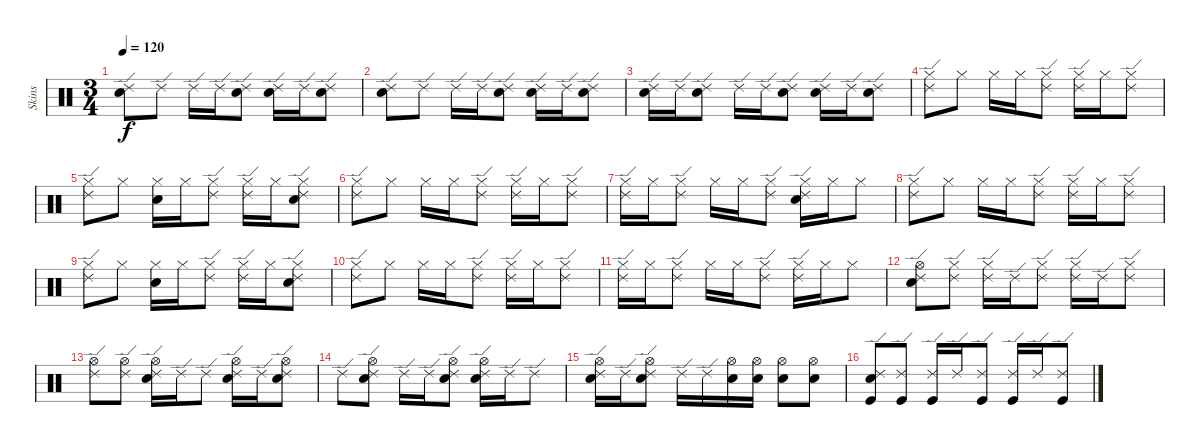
\track ("Skins" "Skins") {instrument percussion}
\staff {score}
\articulation defaults
\ts (3 4)
\tempo 120
\clef neutral
\ks c
("Electric Snare (hit)" "Ride (edge) 2").8{dy f} "Ride (edge) 2".8 "Ride (edge) 2".16 "Ride (edge) 2".16 ("Electric Snare (hit)" "Ride (edge) 2").8 ("Electric Snare (hit)" "Ride (edge) 2").16 "Ride (edge) 2".16 ("Electric Snare (hit)" "Ride (edge) 2").8 |
("Electric Snare (hit)" "Ride (edge) 2").8 "Ride (edge) 2".8 "Ride (edge) 2".16 "Ride (edge) 2".16 ("Electric Snare (hit)" "Ride (edge) 2").8 ("Electric Snare (hit)" "Ride (edge) 2").16 "Ride (edge) 2".16 ("Electric Snare (hit)" "Ride (edge) 2").8 |
("Electric Snare (hit)" "Ride (edge) 2").16 "Ride (edge) 2".16 ("Electric Snare (hit)" "Ride (edge) 2").8 "Ride (edge) 2".16 "Ride (edge) 2".16 ("Electric Snare (hit)" "Ride (edge) 2").8 ("Electric Snare (hit)" "Ride (edge) 2").16 "Ride (edge) 2".16 ("Electric Snare (hit)" "Ride (edge) 2").8 |
("Ride (edge) 2" "Hi-Hat (closed)").8 "Hi-Hat (closed)".8 "Hi-Hat (closed)".16 "Hi-Hat (closed)".16 ("Ride (edge) 2" "Hi-Hat (closed)").8 ("Ride (edge) 2" "Hi-Hat (closed)").16 "Hi-Hat (closed)".16 ("Ride (edge) 2" "Hi-Hat (closed)").8 |
("Ride (edge) 2" "Hi-Hat (closed)").8 "Hi-Hat (closed)".8 ("Hi-Hat (closed)" "Electric Snare (hit)").16 "Hi-Hat (closed)".16 ("Ride (edge) 2" "Hi-Hat (closed)").8 ("Ride (edge) 2" "Hi-Hat (closed)").16 "Hi-Hat (closed)".16 ("Ride (edge) 2" "Hi-Hat (closed)" "Electric Snare (hit)").8 |
("Ride (edge) 2" "Hi-Hat (closed)").8 "Hi-Hat (closed)".8 "Hi-Hat (closed)".16 "Hi-Hat (closed)".16 ("Ride (edge) 2" "Hi-Hat (closed)").8 ("Ride (edge) 2" "Hi-Hat (closed)").16 "Hi-Hat (closed)".16 ("Ride (edge) 2" "Hi-Hat (closed)").8 |
("Ride (edge) 2" "Hi-Hat (closed)").16 "Hi-Hat (closed)".16 ("Ride (edge) 2" "Hi-Hat (closed)").8 "Hi-Hat (closed)".16 "Hi-Hat (closed)".16 ("Ride (edge) 2" "Hi-Hat (closed)").8 ("Ride (edge) 2" "Hi-Hat (closed)" "Electric Snare (hit)").16 "Hi-Hat (closed)".16 "Hi-Hat (closed)".8 |
("Ride (edge) 2" "Hi-Hat (closed)").8 "Hi-Hat (closed)".8 "Hi-Hat (closed)".16 "Hi-Hat (closed)".16 ("Ride (edge) 2" "Hi-Hat (closed)").8 ("Ride (edge) 2" "Hi-Hat (closed)").16 "Hi-Hat (closed)".16 ("Ride (edge) 2" "Hi-Hat (closed)").8 |
("Ride (edge) 2" "Hi-Hat (closed)").8 "Hi-Hat (closed)".8 ("Hi-Hat (closed)" "Electric Snare (hit)").16 "Hi-Hat (closed)".16 ("Ride (edge) 2" "Hi-Hat (closed)").8 ("Ride (edge) 2" "Hi-Hat (closed)").16 "Hi-Hat (closed)".16 ("Ride (edge) 2" "Hi-Hat (closed)" "Electric Snare (hit)").8 |
("Ride (edge) 2" "Hi-Hat (closed)").8 "Hi-Hat (closed)".8 "Hi-Hat (closed)".16 "Hi-Hat (closed)".16 ("Ride (edge) 2" "Hi-Hat (closed)").8 ("Ride (edge) 2" "Hi-Hat (closed)").16 "Hi-Hat (closed)".16 ("Ride (edge) 2" "Hi-Hat (closed)").8 |
("Ride (edge) 2" "Hi-Hat (closed)").16 "Hi-Hat (closed)".16 ("Ride (edge) 2" "Hi-Hat (closed)").8 "Hi-Hat (closed)".16 "Hi-Hat (closed)".16 ("Ride (edge) 2" "Hi-Hat (closed)").8 ("Ride (edge) 2" "Hi-Hat (closed)").16 "Hi-Hat (closed)".16 "Hi-Hat (closed)".8 |
("Electric Snare (hit)" "Ride (edge) 2" "Hi-Hat (open)").8 ("Ride (edge) 2" "Hi-Hat (closed)").8 ("Ride (edge) 2" "Hi-Hat (closed)").16 "Ride (edge) 2".16 ("Ride (edge) 2" "Hi-Hat (closed)").8 ("Ride (edge) 2" "Hi-Hat (closed)").16 "Ride (edge) 2".16 ("Ride (edge) 2" "Hi-Hat (closed)").8 |
("Ride (edge) 2" "Hi-Hat (open)").8 ("Ride (edge) 2" "Hi-Hat (open)").8 ("Electric Snare (hit)" "Ride (edge) 2" "Hi-Hat (open)").16 "Ride (edge) 2".16 "Ride (edge) 2".8 ("Electric Snare (hit)" "Ride (edge) 2" "Hi-Hat (open)").16 "Ride (edge) 2".16 ("Electric Snare (hit)" "Ride (edge) 2" "Hi-Hat (open)").8 |
"Ride (edge) 2".8 ("Electric Snare (hit)" "Ride (edge) 2" "Hi-Hat (open)").8 "Ride (edge) 2".16 "Ride (edge) 2".16 ("Electric Snare (hit)" "Ride (edge) 2" "Hi-Hat (open)").8 ("Electric Snare (hit)" "Ride (edge) 2" "Hi-Hat (open)").16 "Ride (edge) 2".16 "Ride (edge) 2".8 |
("Electric Snare (hit)" "Ride (edge) 2" "Hi-Hat (open)").16 "Ride (edge) 2".16 ("Electric Snare (hit)" "Ride (edge) 2" "Hi-Hat (open)").8 "Ride (edge) 2".16 "Ride (edge) 2".16 ("Electric Snare (hit)" "Hi-Hat (open)").16 ("Electric Snare (hit)" "Hi-Hat (open)").16 ("Electric Snare (hit)" "Hi-Hat (open)").8 ("Electric Snare (hit)" "Hi-Hat (open)").8 |
("Electric Snare (hit)" "Ride (edge) 2" "Kick (hit)").8 ("Ride (edge) 2" "Kick (hit)").8 ("Ride (edge) 2" "Kick (hit)").16 "Ride (edge) 2".16 ("Ride (edge) 2" "Kick (hit)").8 ("Ride (edge) 2" "Kick (hit)").16 "Ride (edge) 2".16 ("Ride (edge) 2" "Kick (hit)").8
